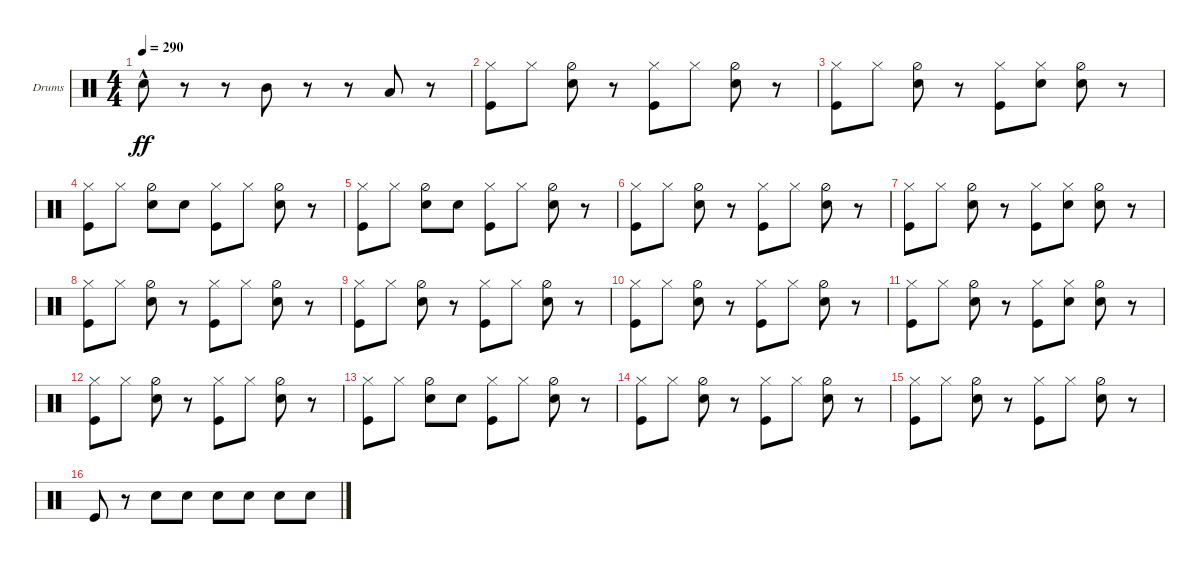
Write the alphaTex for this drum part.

\defaultSystemsLayout 4
\bracketExtendMode groupsimilarinstruments
\firstSystemTrackNameOrientation horizontal
\otherSystemsTrackNameOrientation horizontal
\track ("Drumkit" "Drums") {instrument percussion}
\staff {score}
\articulation defaults
\ts (4 4)
\tempo 290
\clef neutral
\ks c "Snare (hit) 2"{hac}.8{dy ff}
r.8 r.8 "Mid Tom (hit)".8 r.8 r.8 "Low Tom (hit)".8 r.8 |
("Kick (hit)" "Hi-Hat (closed)").8 "Hi-Hat (closed)".8 ("Snare (hit) 2" "Hi-Hat (half)").8 r.8 ("Kick (hit)" "Hi-Hat (closed)").8 "Hi-Hat (closed)".8 ("Snare (hit) 2" "Hi-Hat (half)").8 r.8 |
("Kick (hit)" "Hi-Hat (closed)").8 "Hi-Hat (closed)".8 ("Snare (hit) 2" "Hi-Hat (half)").8 r.8 ("Kick (hit)" "Hi-Hat (closed)").8 ("Snare (hit) 2" "Hi-Hat (closed)").8 ("Snare (hit) 2" "Hi-Hat (half)").8 r.8 |
("Kick (hit)" "Hi-Hat (closed)").8 "Hi-Hat (closed)".8 ("Snare (hit) 2" "Hi-Hat (half)").8 "Snare (hit) 2".8 ("Kick (hit)" "Hi-Hat (closed)").8 "Hi-Hat (closed)".8 ("Snare (hit) 2" "Hi-Hat (half)").8 r.8 |
("Kick (hit)" "Hi-Hat (closed)").8 "Hi-Hat (closed)".8 ("Snare (hit) 2" "Hi-Hat (half)").8 "Snare (hit) 2".8 ("Kick (hit)" "Hi-Hat (closed)").8 "Hi-Hat (closed)".8 ("Snare (hit) 2" "Hi-Hat (half)").8 r.8 |
("Kick (hit)" "Hi-Hat (closed)").8 "Hi-Hat (closed)".8 ("Snare (hit) 2" "Hi-Hat (half)").8 r.8 ("Kick (hit)" "Hi-Hat (closed)").8 "Hi-Hat (closed)".8 ("Snare (hit) 2" "Hi-Hat (half)").8 r.8 |
("Kick (hit)" "Hi-Hat (closed)").8 "Hi-Hat (closed)".8 ("Snare (hit) 2" "Hi-Hat (half)").8 r.8 ("Kick (hit)" "Hi-Hat (closed)").8 ("Snare (hit) 2" "Hi-Hat (closed)").8 ("Snare (hit) 2" "Hi-Hat (half)").8 r.8 |
("Kick (hit)" "Hi-Hat (closed)").8 "Hi-Hat (closed)".8 ("Snare (hit) 2" "Hi-Hat (half)").8 r.8 ("Kick (hit)" "Hi-Hat (closed)").8 "Hi-Hat (closed)".8 ("Snare (hit) 2" "Hi-Hat (half)").8 r.8 |
("Kick (hit)" "Hi-Hat (closed)").8 "Hi-Hat (closed)".8 ("Snare (hit) 2" "Hi-Hat (half)").8 r.8 ("Kick (hit)" "Hi-Hat (closed)").8 "Hi-Hat (closed)".8 ("Snare (hit) 2" "Hi-Hat (half)").8 r.8 |
("Kick (hit)" "Hi-Hat (closed)").8 "Hi-Hat (closed)".8 ("Snare (hit) 2" "Hi-Hat (half)").8 r.8 ("Kick (hit)" "Hi-Hat (closed)").8 "Hi-Hat (closed)".8 ("Snare (hit) 2" "Hi-Hat (half)").8 r.8 |
("Kick (hit)" "Hi-Hat (closed)").8 "Hi-Hat (closed)".8 ("Snare (hit) 2" "Hi-Hat (half)").8 r.8 ("Kick (hit)" "Hi-Hat (closed)").8 ("Snare (hit) 2" "Hi-Hat (closed)").8 ("Snare (hit) 2" "Hi-Hat (half)").8 r.8 |
("Kick (hit)" "Hi-Hat (closed)").8 "Hi-Hat (closed)".8 ("Snare (hit) 2" "Hi-Hat (half)").8 r.8 ("Kick (hit)" "Hi-Hat (closed)").8 "Hi-Hat (closed)".8 ("Snare (hit) 2" "Hi-Hat (half)").8 r.8 |
("Kick (hit)" "Hi-Hat (closed)").8 "Hi-Hat (closed)".8 ("Snare (hit) 2" "Hi-Hat (half)").8 "Snare (hit) 2".8 ("Kick (hit)" "Hi-Hat (closed)").8 "Hi-Hat (closed)".8 ("Snare (hit) 2" "Hi-Hat (half)").8 r.8 |
("Kick (hit)" "Hi-Hat (closed)").8 "Hi-Hat (closed)".8 ("Snare (hit) 2" "Hi-Hat (half)").8 r.8 ("Kick (hit)" "Hi-Hat (closed)").8 "Hi-Hat (closed)".8 ("Snare (hit) 2" "Hi-Hat (half)").8 r.8 |
("Kick (hit)" "Hi-Hat (closed)").8 "Hi-Hat (closed)".8 ("Snare (hit) 2" "Hi-Hat (half)").8 r.8 ("Kick (hit)" "Hi-Hat (closed)").8 "Hi-Hat (closed)".8 ("Snare (hit) 2" "Hi-Hat (half)").8 r.8 |
"Kick (hit)".8 r.8 "Snare (hit) 2".8 "Snare (hit) 2".8 "Snare (hit) 2".8 "Snare (hit) 2".8 "Snare (hit) 2".8 "Snare (hit) 2".8
